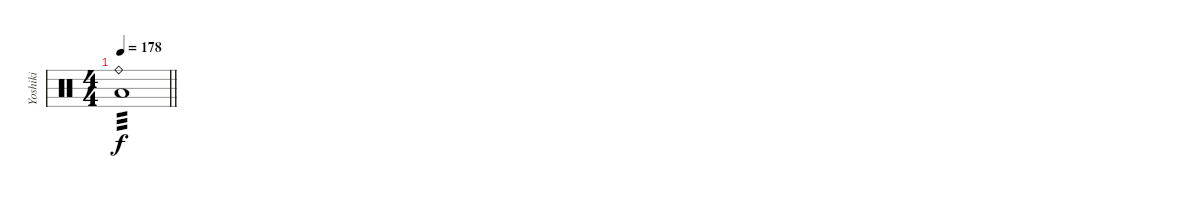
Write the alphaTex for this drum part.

\track ("Yoshiki" "Yoshiki") {instrument percussion}
\staff {score}
\articulation defaults
\ts (4 4)
\tempo 178
\clef neutral
\barLineRight lightlight
\ks c
("Ride (bell)" "Low Floor Tom (hit)").1{tp 3 dy f}
